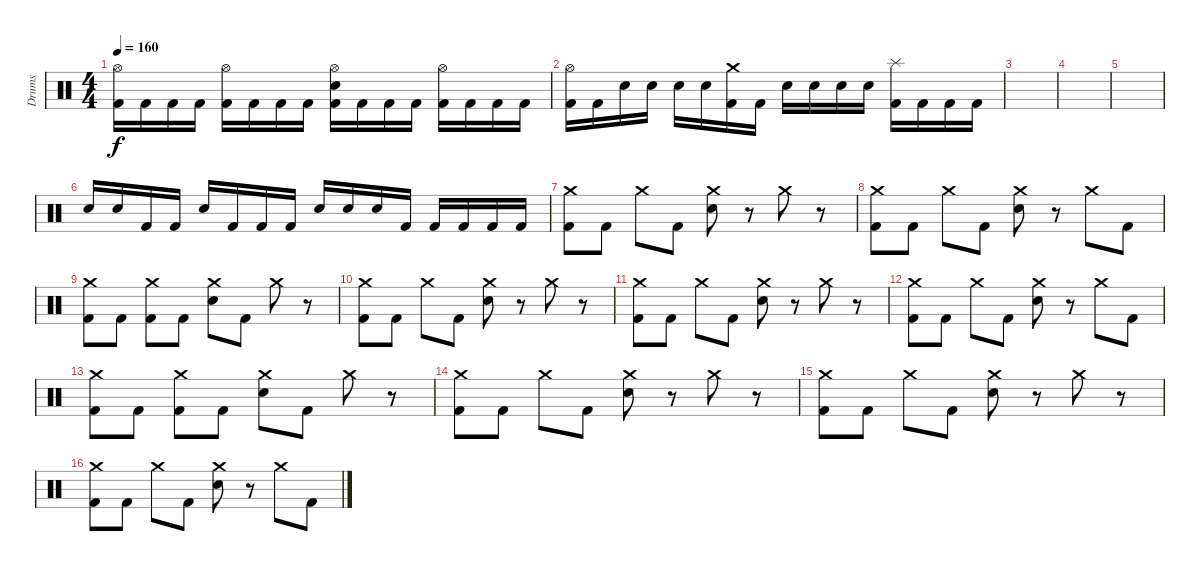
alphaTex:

\track ("Drums" "Drums") {instrument percussion}
\staff {score}
\articulation defaults
\ts (4 4)
\tempo 160
\clef neutral
\ks c
("Hi-Hat (open)" "Kick (hit) 2").16{dy f} "Kick (hit) 2".16 "Kick (hit) 2".16 "Kick (hit) 2".16 ("Hi-Hat (open)" "Kick (hit) 2").16 "Kick (hit) 2".16 "Kick (hit) 2".16 "Kick (hit) 2".16 ("Hi-Hat (open)" "Snare (hit) 2" "Kick (hit) 2").16 "Kick (hit) 2".16 "Kick (hit) 2".16 "Kick (hit) 2".16 ("Hi-Hat (open)" "Kick (hit) 2").16 "Kick (hit) 2".16 "Kick (hit) 2".16 "Kick (hit) 2".16 |
("Hi-Hat (open)" "Kick (hit) 2").16 "Kick (hit) 2".16 "Snare (hit) 2".16 "Snare (hit) 2".16 "Snare (hit) 2".16 "Snare (hit) 2".16 ("Crash medium (hit)" "Kick (hit) 2").16 "Kick (hit) 2".16 "Snare (hit) 2".16 "Snare (hit) 2".16 "Snare (hit) 2".16 "Snare (hit) 2".16 ("Splash (hit)" "Kick (hit) 2").16 "Kick (hit) 2".16 "Kick (hit) 2".16 "Kick (hit) 2".16 |
|
|
|
"Snare (hit) 2".16 "Snare (hit) 2".16 "Kick (hit) 2".16 "Kick (hit) 2".16 "Snare (hit) 2".16 "Kick (hit) 2".16 "Kick (hit) 2".16 "Kick (hit) 2".16 "Snare (hit) 2".16 "Snare (hit) 2".16 "Snare (hit) 2".16 "Kick (hit) 2".16 "Kick (hit) 2".16 "Kick (hit) 2".16 "Kick (hit) 2".16 "Kick (hit) 2".16 |
("Crash medium (hit)" "Kick (hit) 2").8 "Kick (hit) 2".8 "Crash medium (hit)".8 "Kick (hit) 2".8 ("Crash medium (hit)" "Snare (hit) 2").8 r.8 "Crash medium (hit)".8 r.8 |
("Crash medium (hit)" "Kick (hit) 2").8 "Kick (hit) 2".8 "Crash medium (hit)".8 "Kick (hit) 2".8 ("Crash medium (hit)" "Snare (hit) 2").8 r.8 "Crash medium (hit)".8 "Kick (hit) 2".8 |
("Crash medium (hit)" "Kick (hit) 2").8 "Kick (hit) 2".8 ("Crash medium (hit)" "Kick (hit) 2").8 "Kick (hit) 2".8 ("Crash medium (hit)" "Snare (hit) 2").8 "Kick (hit) 2".8 "Crash medium (hit)".8 r.8 |
("Crash medium (hit)" "Kick (hit) 2").8 "Kick (hit) 2".8 "Crash medium (hit)".8 "Kick (hit) 2".8 ("Crash medium (hit)" "Snare (hit) 2").8 r.8 "Crash medium (hit)".8 r.8 |
("Crash medium (hit)" "Kick (hit) 2").8 "Kick (hit) 2".8 "Crash medium (hit)".8 "Kick (hit) 2".8 ("Crash medium (hit)" "Snare (hit) 2").8 r.8 "Crash medium (hit)".8 r.8 |
("Crash medium (hit)" "Kick (hit) 2").8 "Kick (hit) 2".8 "Crash medium (hit)".8 "Kick (hit) 2".8 ("Crash medium (hit)" "Snare (hit) 2").8 r.8 "Crash medium (hit)".8 "Kick (hit) 2".8 |
("Crash medium (hit)" "Kick (hit) 2").8 "Kick (hit) 2".8 ("Crash medium (hit)" "Kick (hit) 2").8 "Kick (hit) 2".8 ("Crash medium (hit)" "Snare (hit) 2").8 "Kick (hit) 2".8 "Crash medium (hit)".8 r.8 |
("Crash medium (hit)" "Kick (hit) 2").8 "Kick (hit) 2".8 "Crash medium (hit)".8 "Kick (hit) 2".8 ("Crash medium (hit)" "Snare (hit) 2").8 r.8 "Crash medium (hit)".8 r.8 |
("Crash medium (hit)" "Kick (hit) 2").8 "Kick (hit) 2".8 "Crash medium (hit)".8 "Kick (hit) 2".8 ("Crash medium (hit)" "Snare (hit) 2").8 r.8 "Crash medium (hit)".8 r.8 |
("Crash medium (hit)" "Kick (hit) 2").8 "Kick (hit) 2".8 "Crash medium (hit)".8 "Kick (hit) 2".8 ("Crash medium (hit)" "Snare (hit) 2").8 r.8 "Crash medium (hit)".8 "Kick (hit) 2".8
